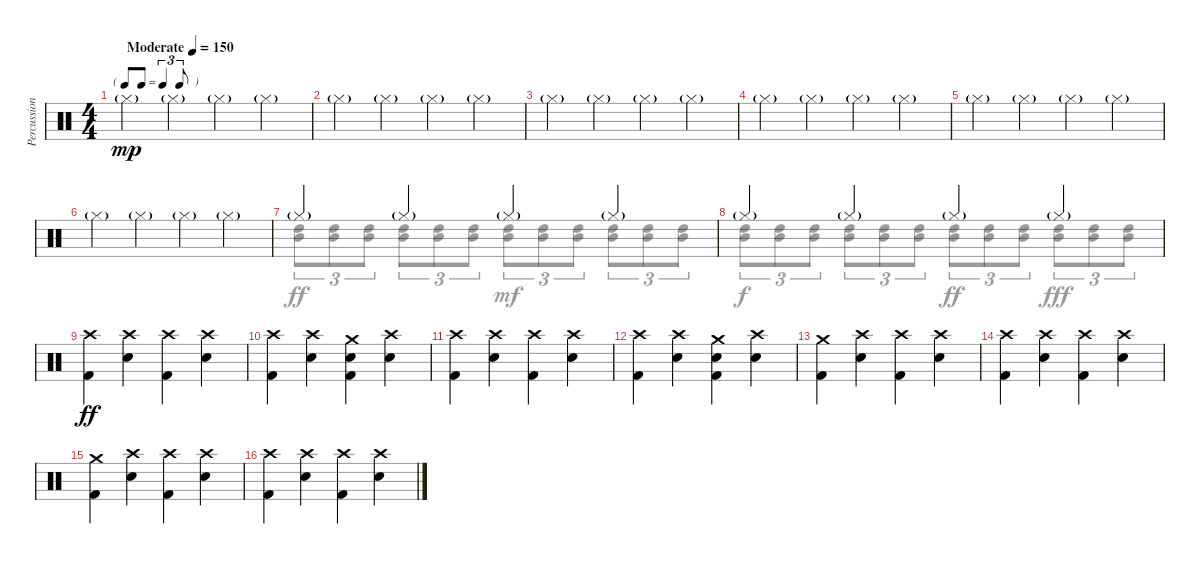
\track ("Percussion" "Percussion") {instrument percussion}
\staff {score}
\articulation defaults
\voice
\ts (4 4)
\tf triplet8th
\tempo (150 "Moderate")
\clef neutral
\ks c "Hi-Hat (closed)"{g}.4{dy mp} "Hi-Hat (closed)"{g}.4 "Hi-Hat (closed)"{g}.4 "Hi-Hat (closed)"{g}.4
|
"Hi-Hat (closed)"{g}.4 "Hi-Hat (closed)"{g}.4 "Hi-Hat (closed)"{g}.4 "Hi-Hat (closed)"{g}.4 |
"Hi-Hat (closed)"{g}.4 "Hi-Hat (closed)"{g}.4 "Hi-Hat (closed)"{g}.4 "Hi-Hat (closed)"{g}.4 |
"Hi-Hat (closed)"{g}.4 "Hi-Hat (closed)"{g}.4 "Hi-Hat (closed)"{g}.4 "Hi-Hat (closed)"{g}.4 |
"Hi-Hat (closed)"{g}.4 "Hi-Hat (closed)"{g}.4 "Hi-Hat (closed)"{g}.4 "Hi-Hat (closed)"{g}.4 |
"Hi-Hat (closed)"{g}.4 "Hi-Hat (closed)"{g}.4 "Hi-Hat (closed)"{g}.4 "Hi-Hat (closed)"{g}.4 |
"Hi-Hat (closed)"{g}.4 "Hi-Hat (closed)"{g}.4 "Hi-Hat (closed)"{g}.4 "Hi-Hat (closed)"{g}.4 |
"Hi-Hat (closed)"{g}.4 "Hi-Hat (closed)"{g}.4 "Hi-Hat (closed)"{g}.4 "Hi-Hat (closed)"{g}.4 |
("Crash high (hit)" "Kick (hit) 2").4{dy ff} ("Crash high (hit)" "Electric Snare (hit)").4 ("Crash high (hit)" "Kick (hit) 2").4 ("Crash high (hit)" "Electric Snare (hit)").4 |
("Crash high (hit)" "Kick (hit) 2").4 ("Crash high (hit)" "Electric Snare (hit)").4 ("Crash medium (hit)" "Electric Snare (hit)" "Kick (hit) 2").4 ("Crash high (hit)" "Electric Snare (hit)").4 |
("Crash high (hit)" "Kick (hit) 2").4 ("Crash high (hit)" "Electric Snare (hit)").4 ("Crash high (hit)" "Kick (hit) 2").4 ("Crash high (hit)" "Electric Snare (hit)").4 |
("Crash high (hit)" "Kick (hit) 2").4 ("Crash high (hit)" "Electric Snare (hit)").4 ("Crash medium (hit)" "Electric Snare (hit)" "Kick (hit) 2").4 ("Crash high (hit)" "Electric Snare (hit)").4 |
("Crash medium (hit)" "Kick (hit) 2").4 ("Crash high (hit)" "Electric Snare (hit)").4 ("Crash high (hit)" "Kick (hit) 2").4 ("Crash high (hit)" "Electric Snare (hit)").4 |
("Crash high (hit)" "Kick (hit) 2").4 ("Crash high (hit)" "Electric Snare (hit)").4 ("Crash high (hit)" "Kick (hit) 2").4 ("Crash high (hit)" "Electric Snare (hit)").4 |
("Crash medium (hit)" "Kick (hit) 2").4 ("Crash high (hit)" "Electric Snare (hit)").4 ("Crash high (hit)" "Kick (hit) 2").4 ("Crash high (hit)" "Electric Snare (hit)").4 |
("Crash high (hit)" "Kick (hit) 2").4 ("Crash high (hit)" "Electric Snare (hit)").4 ("Crash high (hit)" "Kick (hit) 2").4 ("Crash high (hit)" "Electric Snare (hit)").4
\voice
\clef neutral
\ottava regular
\simile none
\ks c
|
|
|
|
|
|
("High Tom (hit)" "Mid Tom (hit)").8{tu (3 2)} ("High Tom (hit)" "Mid Tom (hit)").8{tu (3 2)} ("High Tom (hit)" "Mid Tom (hit)").8{tu (3 2)} ("High Tom (hit)" "Mid Tom (hit)").8{tu (3 2)} ("High Tom (hit)" "Mid Tom (hit)").8{tu (3 2)} ("High Tom (hit)" "Mid Tom (hit)").8{tu (3 2)} ("High Tom (hit)" "Mid Tom (hit)").8{tu (3 2) dy mf} ("High Tom (hit)" "Mid Tom (hit)").8{tu (3 2)} ("High Tom (hit)" "Mid Tom (hit)").8{tu (3 2)} ("High Tom (hit)" "Mid Tom (hit)").8{tu (3 2)} ("High Tom (hit)" "Mid Tom (hit)").8{tu (3 2)} ("High Tom (hit)" "Mid Tom (hit)").8{tu (3 2)} |
("High Tom (hit)" "Mid Tom (hit)").8{tu (3 2) dy f} ("High Tom (hit)" "Mid Tom (hit)").8{tu (3 2)} ("High Tom (hit)" "Mid Tom (hit)").8{tu (3 2)} ("High Tom (hit)" "Mid Tom (hit)").8{tu (3 2)} ("High Tom (hit)" "Mid Tom (hit)").8{tu (3 2)} ("High Tom (hit)" "Mid Tom (hit)").8{tu (3 2)} ("High Tom (hit)" "Mid Tom (hit)").8{tu (3 2) dy ff} ("High Tom (hit)" "Mid Tom (hit)").8{tu (3 2)} ("High Tom (hit)" "Mid Tom (hit)").8{tu (3 2)} ("High Tom (hit)" "Mid Tom (hit)").8{tu (3 2) dy fff} ("High Tom (hit)" "Mid Tom (hit)").8{tu (3 2)} ("High Tom (hit)" "Mid Tom (hit)").8{tu (3 2)} |
|
|
|
|
|
|
|
